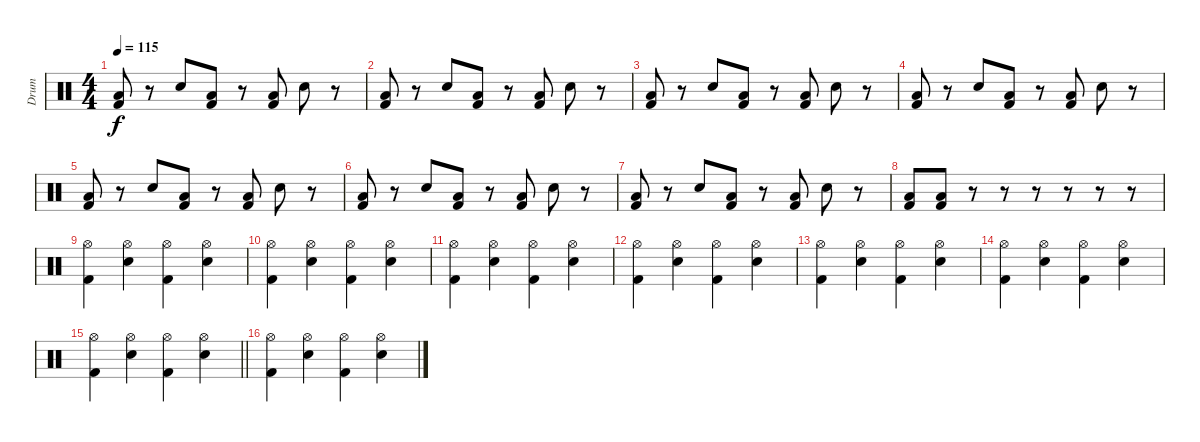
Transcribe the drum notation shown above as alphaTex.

\track ("Drum" "Drum") {instrument percussion}
\staff {score}
\articulation defaults
\ts (4 4)
\tempo 115
\clef neutral
\ks c
("Low Floor Tom (hit)" "Kick (hit) 2").8{dy f} r.8 "Snare (hit) 2".8 ("Low Floor Tom (hit)" "Kick (hit) 2").8 r.8 ("Low Floor Tom (hit)" "Kick (hit) 2").8 "Snare (hit) 2".8 r.8 |
("Low Floor Tom (hit)" "Kick (hit) 2").8 r.8 "Snare (hit) 2".8 ("Low Floor Tom (hit)" "Kick (hit) 2").8 r.8 ("Low Floor Tom (hit)" "Kick (hit) 2").8 "Snare (hit) 2".8 r.8 |
("Low Floor Tom (hit)" "Kick (hit) 2").8 r.8 "Snare (hit) 2".8 ("Low Floor Tom (hit)" "Kick (hit) 2").8 r.8 ("Low Floor Tom (hit)" "Kick (hit) 2").8 "Snare (hit) 2".8 r.8 |
("Low Floor Tom (hit)" "Kick (hit) 2").8 r.8 "Snare (hit) 2".8 ("Low Floor Tom (hit)" "Kick (hit) 2").8 r.8 ("Low Floor Tom (hit)" "Kick (hit) 2").8 "Snare (hit) 2".8 r.8 |
("Low Floor Tom (hit)" "Kick (hit) 2").8 r.8 "Snare (hit) 2".8 ("Low Floor Tom (hit)" "Kick (hit) 2").8 r.8 ("Low Floor Tom (hit)" "Kick (hit) 2").8 "Snare (hit) 2".8 r.8 |
("Low Floor Tom (hit)" "Kick (hit) 2").8 r.8 "Snare (hit) 2".8 ("Low Floor Tom (hit)" "Kick (hit) 2").8 r.8 ("Low Floor Tom (hit)" "Kick (hit) 2").8 "Snare (hit) 2".8 r.8 |
("Low Floor Tom (hit)" "Kick (hit) 2").8 r.8 "Snare (hit) 2".8 ("Low Floor Tom (hit)" "Kick (hit) 2").8 r.8 ("Low Floor Tom (hit)" "Kick (hit) 2").8 "Snare (hit) 2".8 r.8 |
("Low Floor Tom (hit)" "Kick (hit) 2").8 ("Low Floor Tom (hit)" "Kick (hit) 2").8 r.8 r.8 r.8 r.8 r.8 r.8 |
("Kick (hit) 2" "Hi-Hat (open)").4 ("Snare (hit) 2" "Hi-Hat (open)").4 ("Kick (hit) 2" "Hi-Hat (open)").4 ("Snare (hit) 2" "Hi-Hat (open)").4 |
("Kick (hit) 2" "Hi-Hat (open)").4 ("Snare (hit) 2" "Hi-Hat (open)").4 ("Kick (hit) 2" "Hi-Hat (open)").4 ("Snare (hit) 2" "Hi-Hat (open)").4 |
("Kick (hit) 2" "Hi-Hat (open)").4 ("Snare (hit) 2" "Hi-Hat (open)").4 ("Kick (hit) 2" "Hi-Hat (open)").4 ("Snare (hit) 2" "Hi-Hat (open)").4 |
("Kick (hit) 2" "Hi-Hat (open)").4 ("Snare (hit) 2" "Hi-Hat (open)").4 ("Kick (hit) 2" "Hi-Hat (open)").4 ("Snare (hit) 2" "Hi-Hat (open)").4 |
("Kick (hit) 2" "Hi-Hat (open)").4 ("Snare (hit) 2" "Hi-Hat (open)").4 ("Kick (hit) 2" "Hi-Hat (open)").4 ("Snare (hit) 2" "Hi-Hat (open)").4 |
("Kick (hit) 2" "Hi-Hat (open)").4 ("Snare (hit) 2" "Hi-Hat (open)").4 ("Kick (hit) 2" "Hi-Hat (open)").4 ("Snare (hit) 2" "Hi-Hat (open)").4 |
\barLineRight lightlight
("Kick (hit) 2" "Hi-Hat (open)").4 ("Snare (hit) 2" "Hi-Hat (open)").4 ("Kick (hit) 2" "Hi-Hat (open)").4 ("Snare (hit) 2" "Hi-Hat (open)").4 |
("Kick (hit) 2" "Hi-Hat (open)").4 ("Snare (hit) 2" "Hi-Hat (open)").4 ("Kick (hit) 2" "Hi-Hat (open)").4 ("Snare (hit) 2" "Hi-Hat (open)").4
